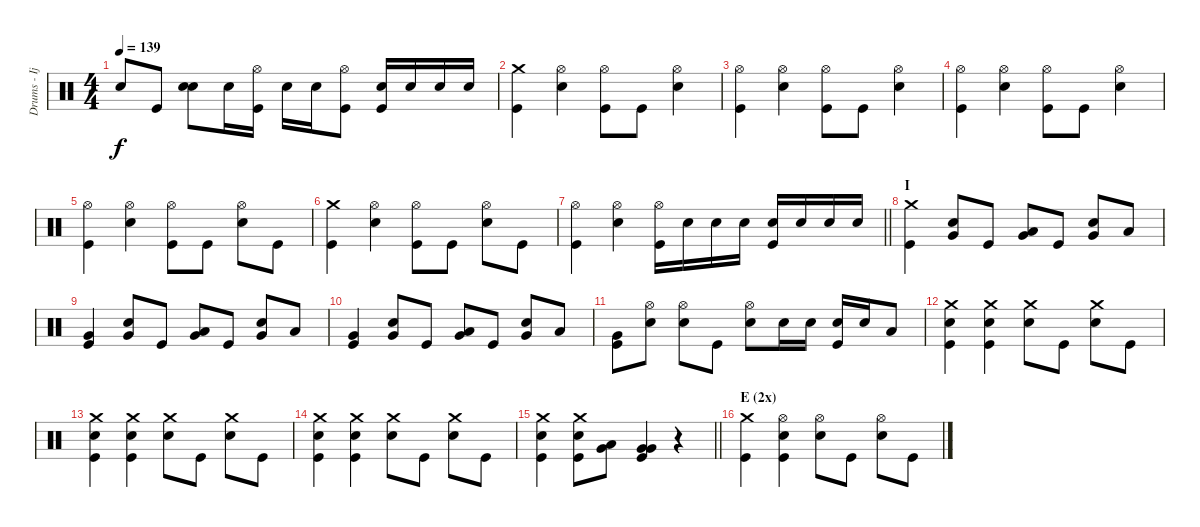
\track ("Drums - Ijichi" "Drums - Ij") {instrument percussion}
\staff {score}
\articulation defaults
\ts (4 4)
\tempo 139
\clef neutral
\ks c "Snare (hit)"{t}.8{dy f} "Kick (hit)".8
("Electric Snare (hit)" "Electric Snare (hit)").8 "Electric Snare (hit)".16 ("Hi-Hat (open)" "Kick (hit)").16 "Electric Snare (hit)".16 "Electric Snare (hit)".16 ("Hi-Hat (open)" "Kick (hit)").8 ("Electric Snare (hit)" "Kick (hit)").16 "Electric Snare (hit)".16 "Electric Snare (hit)".16 "Electric Snare (hit)".16 |
("Crash medium (hit)" "Kick (hit)").4 ("Hi-Hat (open)" "Electric Snare (hit)").4 ("Hi-Hat (open)" "Kick (hit)").8 "Kick (hit)".8 ("Hi-Hat (open)" "Electric Snare (hit)").4 |
("Hi-Hat (open)" "Kick (hit)").4 ("Hi-Hat (open)" "Electric Snare (hit)").4 ("Hi-Hat (open)" "Kick (hit)").8 "Kick (hit)".8 ("Hi-Hat (open)" "Electric Snare (hit)").4 |
("Hi-Hat (open)" "Kick (hit)").4 ("Hi-Hat (open)" "Electric Snare (hit)").4 ("Hi-Hat (open)" "Kick (hit)").8 "Kick (hit)".8 ("Hi-Hat (open)" "Electric Snare (hit)").4 |
("Hi-Hat (open)" "Kick (hit)").4 ("Hi-Hat (open)" "Electric Snare (hit)").4 ("Hi-Hat (open)" "Kick (hit)").8 "Kick (hit)".8 ("Hi-Hat (open)" "Electric Snare (hit)").8 "Kick (hit)".8 |
("Crash medium (hit)" "Kick (hit)").4 ("Hi-Hat (open)" "Electric Snare (hit)").4 ("Hi-Hat (open)" "Kick (hit)").8 "Kick (hit)".8 ("Hi-Hat (open)" "Electric Snare (hit)").8 "Kick (hit)".8 |
\barLineRight lightlight
("Hi-Hat (open)" "Kick (hit)").4 ("Hi-Hat (open)" "Electric Snare (hit)").4 ("Hi-Hat (open)" "Kick (hit)").16 "Electric Snare (hit)".16 "Electric Snare (hit)".16 "Electric Snare (hit)".16 ("Electric Snare (hit)" "Kick (hit)").16 "Electric Snare (hit)".16 "Electric Snare (hit)".16 "Electric Snare (hit)".16 |
\section ("" "I")
("Crash medium (hit)" "Kick (hit)").4 ("Electric Snare (hit)" "Very Low Tom (hit)").8 "Kick (hit)".8 ("Low Tom (hit)" "Very Low Tom (hit)").8 "Kick (hit)".8 ("Electric Snare (hit)" "Very Low Tom (hit)").8 "Low Tom (hit)".8 |
("Very Low Tom (hit)" "Kick (hit)").4 ("Electric Snare (hit)" "Very Low Tom (hit)").8 "Kick (hit)".8 ("Low Tom (hit)" "Very Low Tom (hit)").8 "Kick (hit)".8 ("Electric Snare (hit)" "Very Low Tom (hit)").8 "Low Tom (hit)".8 |
("Very Low Tom (hit)" "Kick (hit)").4 ("Electric Snare (hit)" "Very Low Tom (hit)").8 "Kick (hit)".8 ("Low Tom (hit)" "Very Low Tom (hit)").8 "Kick (hit)".8 ("Electric Snare (hit)" "Very Low Tom (hit)").8 "Low Tom (hit)".8 |
("Very Low Tom (hit)" "Kick (hit)").8 ("Hi-Hat (open)" "Electric Snare (hit)").8 ("Hi-Hat (open)" "Electric Snare (hit)").8 "Kick (hit)".8 ("Hi-Hat (open)" "Electric Snare (hit)").8 "Electric Snare (hit)".16 "Electric Snare (hit)".16 ("Electric Snare (hit)" "Kick (hit)").16 "Electric Snare (hit)".16 "Low Tom (hit)".8 |
("Crash medium (hit)" "Electric Snare (hit)" "Kick (hit)").4 ("Crash medium (hit)" "Electric Snare (hit)" "Kick (hit)").4 ("Crash medium (hit)" "Electric Snare (hit)").8 "Kick (hit)".8 ("Crash medium (hit)" "Electric Snare (hit)").8 "Kick (hit)".8 |
("Crash medium (hit)" "Electric Snare (hit)" "Kick (hit)").4 ("Crash medium (hit)" "Electric Snare (hit)" "Kick (hit)").4 ("Crash medium (hit)" "Electric Snare (hit)").8 "Kick (hit)".8 ("Crash medium (hit)" "Electric Snare (hit)").8 "Kick (hit)".8 |
("Crash medium (hit)" "Electric Snare (hit)" "Kick (hit)").4 ("Crash medium (hit)" "Electric Snare (hit)" "Kick (hit)").4 ("Crash medium (hit)" "Electric Snare (hit)").8 "Kick (hit)".8 ("Crash medium (hit)" "Electric Snare (hit)").8 "Kick (hit)".8 |
\barLineRight lightlight
("Crash medium (hit)" "Electric Snare (hit)" "Kick (hit)").4 ("Crash medium (hit)" "Electric Snare (hit)" "Kick (hit)").8 ("Low Tom (hit)" "Very Low Tom (hit)").8 ("Very Low Tom (hit)" "Very Low Tom (hit)" "Kick (hit)").4 r.4 |
\section ("" "E (2x)")
("Crash medium (hit)" "Kick (hit)").4 ("Hi-Hat (open)" "Electric Snare (hit)" "Kick (hit)").4 ("Hi-Hat (open)" "Electric Snare (hit)").8 "Kick (hit)".8 ("Hi-Hat (open)" "Electric Snare (hit)").8 "Kick (hit)".8
